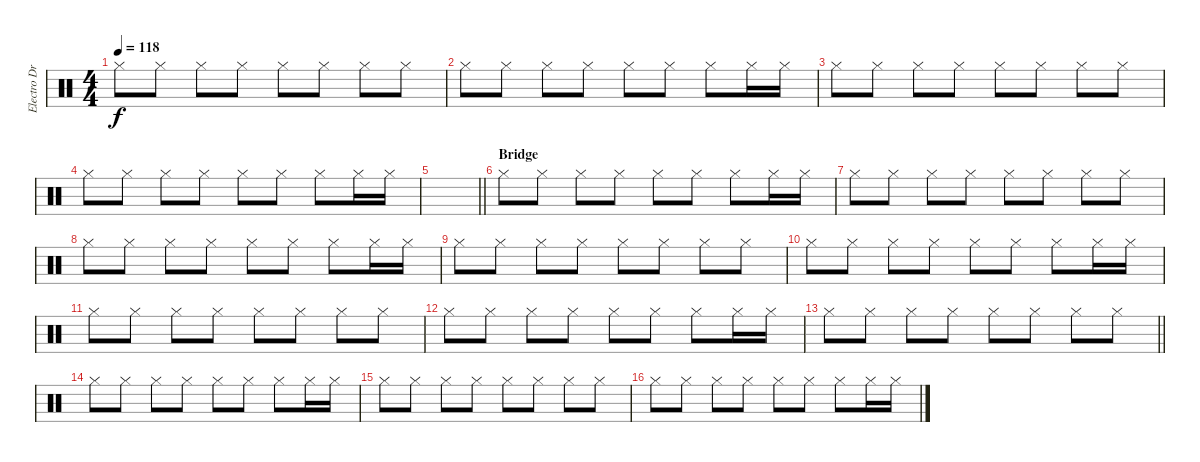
\track ("Electro Drums" "Electro Dr") {instrument percussion}
\staff {score}
\articulation defaults
\ts (4 4)
\tempo 118
\clef neutral
\ks c "Hi-Hat (closed)".8{dy f} "Hi-Hat (closed)".8 "Hi-Hat (closed)".8 "Hi-Hat (closed)".8 "Hi-Hat (closed)".8 "Hi-Hat (closed)".8 "Hi-Hat (closed)".8 "Hi-Hat (closed)".8
|
"Hi-Hat (closed)".8 "Hi-Hat (closed)".8 "Hi-Hat (closed)".8 "Hi-Hat (closed)".8 "Hi-Hat (closed)".8 "Hi-Hat (closed)".8 "Hi-Hat (closed)".8 "Hi-Hat (closed)".16 "Hi-Hat (closed)".16 |
"Hi-Hat (closed)".8 "Hi-Hat (closed)".8 "Hi-Hat (closed)".8 "Hi-Hat (closed)".8 "Hi-Hat (closed)".8 "Hi-Hat (closed)".8 "Hi-Hat (closed)".8 "Hi-Hat (closed)".8 |
"Hi-Hat (closed)".8 "Hi-Hat (closed)".8 "Hi-Hat (closed)".8 "Hi-Hat (closed)".8 "Hi-Hat (closed)".8 "Hi-Hat (closed)".8 "Hi-Hat (closed)".8 "Hi-Hat (closed)".16 "Hi-Hat (closed)".16 |
\barLineRight lightlight
|
\section ("" "Bridge")
"Hi-Hat (closed)".8{volume 4} "Hi-Hat (closed)".8 "Hi-Hat (closed)".8 "Hi-Hat (closed)".8 "Hi-Hat (closed)".8 "Hi-Hat (closed)".8 "Hi-Hat (closed)".8 "Hi-Hat (closed)".16 "Hi-Hat (closed)".16 |
"Hi-Hat (closed)".8 "Hi-Hat (closed)".8 "Hi-Hat (closed)".8 "Hi-Hat (closed)".8 "Hi-Hat (closed)".8 "Hi-Hat (closed)".8 "Hi-Hat (closed)".8 "Hi-Hat (closed)".8 |
"Hi-Hat (closed)".8 "Hi-Hat (closed)".8 "Hi-Hat (closed)".8 "Hi-Hat (closed)".8 "Hi-Hat (closed)".8 "Hi-Hat (closed)".8 "Hi-Hat (closed)".8 "Hi-Hat (closed)".16 "Hi-Hat (closed)".16 |
"Hi-Hat (closed)".8 "Hi-Hat (closed)".8 "Hi-Hat (closed)".8 "Hi-Hat (closed)".8 "Hi-Hat (closed)".8 "Hi-Hat (closed)".8 "Hi-Hat (closed)".8 "Hi-Hat (closed)".8 |
"Hi-Hat (closed)".8 "Hi-Hat (closed)".8 "Hi-Hat (closed)".8 "Hi-Hat (closed)".8 "Hi-Hat (closed)".8 "Hi-Hat (closed)".8 "Hi-Hat (closed)".8 "Hi-Hat (closed)".16 "Hi-Hat (closed)".16 |
"Hi-Hat (closed)".8 "Hi-Hat (closed)".8 "Hi-Hat (closed)".8 "Hi-Hat (closed)".8 "Hi-Hat (closed)".8 "Hi-Hat (closed)".8 "Hi-Hat (closed)".8 "Hi-Hat (closed)".8 |
"Hi-Hat (closed)".8 "Hi-Hat (closed)".8 "Hi-Hat (closed)".8 "Hi-Hat (closed)".8 "Hi-Hat (closed)".8 "Hi-Hat (closed)".8 "Hi-Hat (closed)".8 "Hi-Hat (closed)".16 "Hi-Hat (closed)".16 |
\barLineRight lightlight "Hi-Hat (closed)".8 "Hi-Hat (closed)".8 "Hi-Hat (closed)".8 "Hi-Hat (closed)".8 "Hi-Hat (closed)".8 "Hi-Hat (closed)".8 "Hi-Hat (closed)".8 "Hi-Hat (closed)".8
|
"Hi-Hat (closed)".8 "Hi-Hat (closed)".8 "Hi-Hat (closed)".8 "Hi-Hat (closed)".8 "Hi-Hat (closed)".8 "Hi-Hat (closed)".8 "Hi-Hat (closed)".8 "Hi-Hat (closed)".16 "Hi-Hat (closed)".16 |
"Hi-Hat (closed)".8 "Hi-Hat (closed)".8 "Hi-Hat (closed)".8 "Hi-Hat (closed)".8 "Hi-Hat (closed)".8 "Hi-Hat (closed)".8 "Hi-Hat (closed)".8 "Hi-Hat (closed)".8 |
"Hi-Hat (closed)".8 "Hi-Hat (closed)".8 "Hi-Hat (closed)".8 "Hi-Hat (closed)".8 "Hi-Hat (closed)".8 "Hi-Hat (closed)".8 "Hi-Hat (closed)".8 "Hi-Hat (closed)".16 "Hi-Hat (closed)".16
